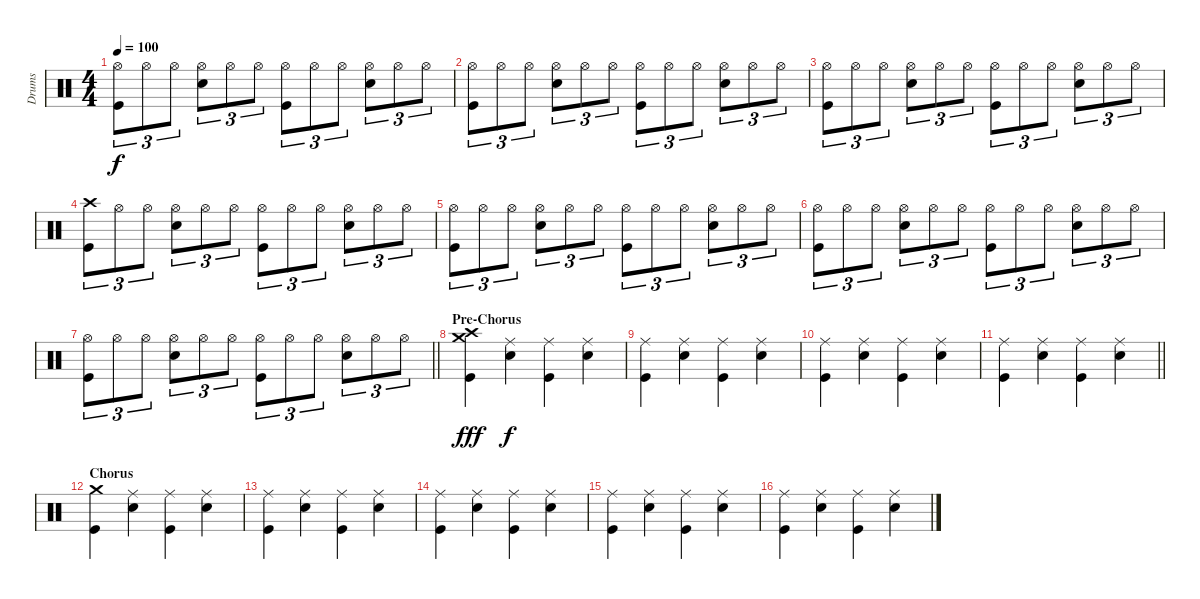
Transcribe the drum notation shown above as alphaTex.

\track ("Drums" "Drums") {instrument percussion}
\staff {score}
\articulation defaults
\ts (4 4)
\tempo 100
\clef neutral
\ks c
("Hi-Hat (open)" "Kick (hit)").8{tu (3 2) dy f} "Hi-Hat (open)".8{tu (3 2)} "Hi-Hat (open)".8{tu (3 2)} ("Hi-Hat (open)" "Snare (hit) 2").8{tu (3 2)} "Hi-Hat (open)".8{tu (3 2)} "Hi-Hat (open)".8{tu (3 2)} ("Hi-Hat (open)" "Kick (hit)").8{tu (3 2)} "Hi-Hat (open)".8{tu (3 2)} "Hi-Hat (open)".8{tu (3 2)} ("Hi-Hat (open)" "Snare (hit) 2").8{tu (3 2)} "Hi-Hat (open)".8{tu (3 2)} "Hi-Hat (open)".8{tu (3 2)} |
("Hi-Hat (open)" "Kick (hit)").8{tu (3 2)} "Hi-Hat (open)".8{tu (3 2)} "Hi-Hat (open)".8{tu (3 2)} ("Hi-Hat (open)" "Snare (hit) 2").8{tu (3 2)} "Hi-Hat (open)".8{tu (3 2)} "Hi-Hat (open)".8{tu (3 2)} ("Hi-Hat (open)" "Kick (hit)").8{tu (3 2)} "Hi-Hat (open)".8{tu (3 2)} "Hi-Hat (open)".8{tu (3 2)} ("Hi-Hat (open)" "Snare (hit) 2").8{tu (3 2)} "Hi-Hat (open)".8{tu (3 2)} "Hi-Hat (open)".8{tu (3 2)} |
("Hi-Hat (open)" "Kick (hit)").8{tu (3 2)} "Hi-Hat (open)".8{tu (3 2)} "Hi-Hat (open)".8{tu (3 2)} ("Hi-Hat (open)" "Snare (hit) 2").8{tu (3 2)} "Hi-Hat (open)".8{tu (3 2)} "Hi-Hat (open)".8{tu (3 2)} ("Hi-Hat (open)" "Kick (hit)").8{tu (3 2)} "Hi-Hat (open)".8{tu (3 2)} "Hi-Hat (open)".8{tu (3 2)} ("Hi-Hat (open)" "Snare (hit) 2").8{tu (3 2)} "Hi-Hat (open)".8{tu (3 2)} "Hi-Hat (open)".8{tu (3 2)} |
("Crash high (hit)" "Kick (hit)").8{tu (3 2)} "Hi-Hat (open)".8{tu (3 2)} "Hi-Hat (open)".8{tu (3 2)} ("Hi-Hat (open)" "Snare (hit) 2").8{tu (3 2)} "Hi-Hat (open)".8{tu (3 2)} "Hi-Hat (open)".8{tu (3 2)} ("Hi-Hat (open)" "Kick (hit)").8{tu (3 2)} "Hi-Hat (open)".8{tu (3 2)} "Hi-Hat (open)".8{tu (3 2)} ("Hi-Hat (open)" "Snare (hit) 2").8{tu (3 2)} "Hi-Hat (open)".8{tu (3 2)} "Hi-Hat (open)".8{tu (3 2)} |
("Hi-Hat (open)" "Kick (hit)").8{tu (3 2)} "Hi-Hat (open)".8{tu (3 2)} "Hi-Hat (open)".8{tu (3 2)} ("Hi-Hat (open)" "Snare (hit) 2").8{tu (3 2)} "Hi-Hat (open)".8{tu (3 2)} "Hi-Hat (open)".8{tu (3 2)} ("Hi-Hat (open)" "Kick (hit)").8{tu (3 2)} "Hi-Hat (open)".8{tu (3 2)} "Hi-Hat (open)".8{tu (3 2)} ("Hi-Hat (open)" "Snare (hit) 2").8{tu (3 2)} "Hi-Hat (open)".8{tu (3 2)} "Hi-Hat (open)".8{tu (3 2)} |
("Hi-Hat (open)" "Kick (hit)").8{tu (3 2)} "Hi-Hat (open)".8{tu (3 2)} "Hi-Hat (open)".8{tu (3 2)} ("Hi-Hat (open)" "Snare (hit) 2").8{tu (3 2)} "Hi-Hat (open)".8{tu (3 2)} "Hi-Hat (open)".8{tu (3 2)} ("Hi-Hat (open)" "Kick (hit)").8{tu (3 2)} "Hi-Hat (open)".8{tu (3 2)} "Hi-Hat (open)".8{tu (3 2)} ("Hi-Hat (open)" "Snare (hit) 2").8{tu (3 2)} "Hi-Hat (open)".8{tu (3 2)} "Hi-Hat (open)".8{tu (3 2)} |
\barLineRight lightlight
("Hi-Hat (open)" "Kick (hit)").8{tu (3 2)} "Hi-Hat (open)".8{tu (3 2)} "Hi-Hat (open)".8{tu (3 2)} ("Hi-Hat (open)" "Snare (hit) 2").8{tu (3 2)} "Hi-Hat (open)".8{tu (3 2)} "Hi-Hat (open)".8{tu (3 2)} ("Hi-Hat (open)" "Kick (hit)").8{tu (3 2)} "Hi-Hat (open)".8{tu (3 2)} "Hi-Hat (open)".8{tu (3 2)} ("Hi-Hat (open)" "Snare (hit) 2").8{tu (3 2)} "Hi-Hat (open)".8{tu (3 2)} "Hi-Hat (open)".8{tu (3 2)} |
\section ("" "Pre-Chorus")
("Crash high (hit)" "Crash medium (hit)" "Kick (hit)").4{dy fff} ("Ride (middle)" "Snare (hit) 2").4{dy f} ("Ride (middle)" "Kick (hit)").4 ("Ride (middle)" "Snare (hit) 2").4 |
("Ride (middle)" "Kick (hit)").4 ("Ride (middle)" "Snare (hit) 2").4 ("Ride (middle)" "Kick (hit)").4 ("Ride (middle)" "Snare (hit) 2").4 |
("Ride (middle)" "Kick (hit)").4 ("Ride (middle)" "Snare (hit) 2").4 ("Ride (middle)" "Kick (hit)").4 ("Ride (middle)" "Snare (hit) 2").4 |
\barLineRight lightlight
("Ride (middle)" "Kick (hit)").4 ("Ride (middle)" "Snare (hit) 2").4 ("Ride (middle)" "Kick (hit)").4 ("Ride (middle)" "Snare (hit) 2").4 |
\section ("" "Chorus")
("Crash medium (hit)" "Kick (hit)").4 ("Ride (middle)" "Snare (hit) 2").4 ("Ride (middle)" "Kick (hit)").4 ("Ride (middle)" "Snare (hit) 2").4 |
("Ride (middle)" "Kick (hit)").4 ("Ride (middle)" "Snare (hit) 2").4 ("Ride (middle)" "Kick (hit)").4 ("Ride (middle)" "Snare (hit) 2").4 |
("Ride (middle)" "Kick (hit)").4 ("Ride (middle)" "Snare (hit) 2").4 ("Ride (middle)" "Kick (hit)").4 ("Ride (middle)" "Snare (hit) 2").4 |
("Ride (middle)" "Kick (hit)").4 ("Ride (middle)" "Snare (hit) 2").4 ("Ride (middle)" "Kick (hit)").4 ("Ride (middle)" "Snare (hit) 2").4 |
("Ride (middle)" "Kick (hit)").4 ("Ride (middle)" "Snare (hit) 2").4 ("Ride (middle)" "Kick (hit)").4 ("Ride (middle)" "Snare (hit) 2").4
